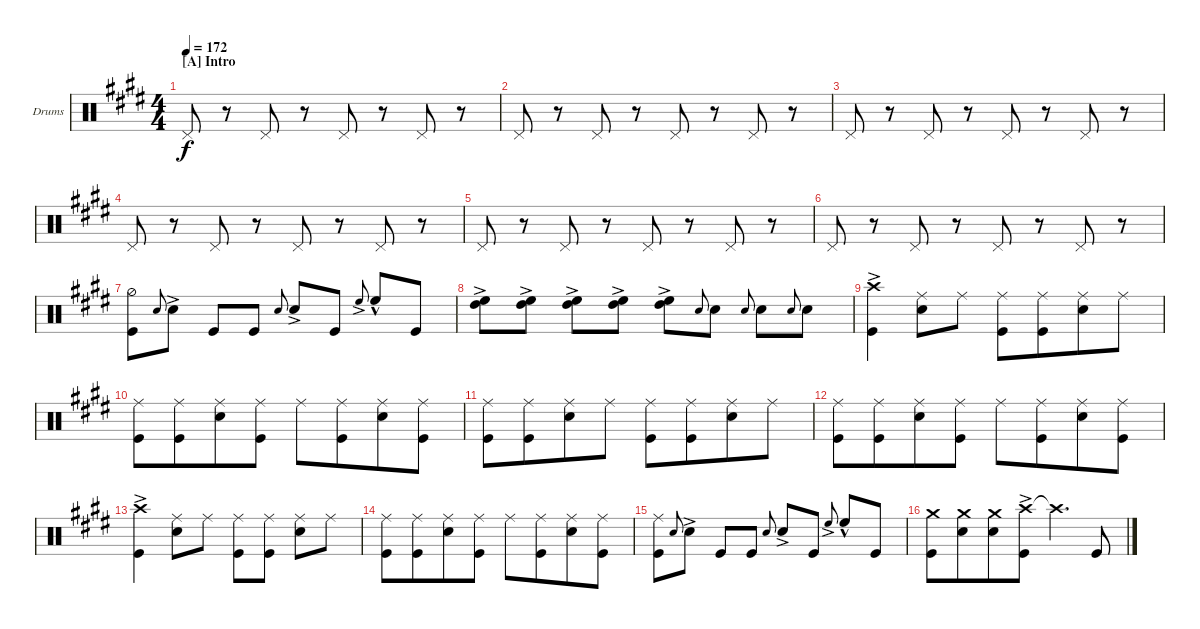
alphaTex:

\bracketExtendMode groupsimilarinstruments
\firstSystemTrackNameOrientation horizontal
\otherSystemsTrackNameOrientation horizontal
\track ("Drums" "Drums") {instrument percussion}
\staff {score}
\articulation defaults
\ts (4 4)
\section ("A" "Intro")
\tempo 172
\clef neutral
\scale
0.526971
\ks e "Pedal Hi-Hat (hit)".8{dy f}
r.8 "Pedal Hi-Hat (hit)".8 r.8 "Pedal Hi-Hat (hit)".8 r.8 "Pedal Hi-Hat (hit)".8 r.8 |
\scale
0.236515 "Pedal Hi-Hat (hit)".8 r.8 "Pedal Hi-Hat (hit)".8 r.8 "Pedal Hi-Hat (hit)".8 r.8 "Pedal Hi-Hat (hit)".8 r.8 |
\scale
0.236515 "Pedal Hi-Hat (hit)".8 r.8 "Pedal Hi-Hat (hit)".8 r.8 "Pedal Hi-Hat (hit)".8 r.8 "Pedal Hi-Hat (hit)".8 r.8 |
\scale
0.311475 "Pedal Hi-Hat (hit)".8 r.8 "Pedal Hi-Hat (hit)".8 r.8 "Pedal Hi-Hat (hit)".8 r.8 "Pedal Hi-Hat (hit)".8 r.8 |
\scale
0.377049 "Pedal Hi-Hat (hit)".8 r.8 "Pedal Hi-Hat (hit)".8 r.8 "Pedal Hi-Hat (hit)".8 r.8 "Pedal Hi-Hat (hit)".8 r.8 |
\scale
0.311475 "Pedal Hi-Hat (hit)".8 r.8 "Pedal Hi-Hat (hit)".8 r.8 "Pedal Hi-Hat (hit)".8 r.8 "Pedal Hi-Hat (hit)".8 r.8 |
\scale
0.333333 ("Hi-Hat (half)" "Kick (hit)").8 "Snare (hit) 2".8{gr onbeat} "Snare (hit) 2"{ac}.8 "Kick (hit)".8 "Kick (hit)".8 "Snare (hit) 2".8{gr onbeat} "Snare (hit) 2"{ac}.8 "Kick (hit)".8{beam split} "High Floor Tom (hit)"{ac}.8{gr onbeat beam split} "High Floor Tom (hit)"{hac}.8 "Kick (hit)".8 |
\scale
0.333333 ("High Floor Tom (hit)"{ac} "High Tom (hit)"{ac}).8 ("High Floor Tom (hit)"{ac} "High Tom (hit)"{ac}).8 ("High Floor Tom (hit)"{ac} "High Tom (hit)"{ac}).8 ("High Floor Tom (hit)"{ac} "High Tom (hit)"{ac}).8 ("High Floor Tom (hit)"{ac} "High Tom (hit)"{ac}).8 "Snare (hit) 2".8{gr onbeat} "Snare (hit) 2".8 "Snare (hit) 2".8{gr onbeat} "Snare (hit) 2".8 "Snare (hit) 2".8{gr onbeat} "Snare (hit) 2".8 |
("Kick (hit)" "Crash high (hit)"{ac}).4 ("Snare (hit) 2" "Ride (middle)").8 "Ride (middle)".8 ("Kick (hit)" "Ride (middle)").8 ("Kick (hit)" "Ride (middle)").8{beam merge} ("Snare (hit) 2" "Ride (middle)").8 "Ride (middle)".8 |
("Kick (hit)" "Ride (middle)").8 ("Kick (hit)" "Ride (middle)").8{beam merge} ("Snare (hit) 2" "Ride (middle)").8 ("Kick (hit)" "Ride (middle)").8 "Ride (middle)".8 ("Kick (hit)" "Ride (middle)").8{beam merge} ("Snare (hit) 2" "Ride (middle)").8 ("Kick (hit)" "Ride (middle)").8 |
("Kick (hit)" "Ride (middle)").8 ("Kick (hit)" "Ride (middle)").8{beam merge} ("Snare (hit) 2" "Ride (middle)").8 "Ride (middle)".8 ("Kick (hit)" "Ride (middle)").8 ("Kick (hit)" "Ride (middle)").8{beam merge} ("Snare (hit) 2" "Ride (middle)").8 "Ride (middle)".8 |
("Kick (hit)" "Ride (middle)").8 ("Kick (hit)" "Ride (middle)").8{beam merge} ("Snare (hit) 2" "Ride (middle)").8 ("Kick (hit)" "Ride (middle)").8 "Ride (middle)".8 ("Kick (hit)" "Ride (middle)").8{beam merge} ("Snare (hit) 2" "Ride (middle)").8 ("Kick (hit)" "Ride (middle)").8 |
("Kick (hit)" "Crash high (hit)"{ac}).4 ("Snare (hit) 2" "Ride (middle)").8 "Ride (middle)".8 ("Kick (hit)" "Ride (middle)").8 ("Kick (hit)" "Ride (middle)").8 ("Snare (hit) 2" "Ride (middle)").8 "Ride (middle)".8 |
("Kick (hit)" "Ride (middle)").8 ("Kick (hit)" "Ride (middle)").8{beam merge} ("Snare (hit) 2" "Ride (middle)").8 ("Kick (hit)" "Ride (middle)").8 "Ride (middle)".8 ("Kick (hit)" "Ride (middle)").8{beam merge} ("Snare (hit) 2" "Ride (middle)").8 ("Kick (hit)" "Ride (middle)").8 |
("Kick (hit)" "Ride (middle)").8 "Snare (hit) 2".8{gr onbeat} "Snare (hit) 2"{ac}.8 "Kick (hit)".8 "Kick (hit)".8 "Snare (hit) 2".8{gr onbeat} "Snare (hit) 2"{ac}.8 "Kick (hit)".8 "High Floor Tom (hit)"{ac}.8{gr onbeat} "High Floor Tom (hit)"{hac}.8 "Kick (hit)".8 |
\scale
0.333333 ("Kick (hit)" "Crash medium (hit)").8 ("Snare (hit) 2" "Crash medium (hit)").8{beam merge} ("Snare (hit) 2" "Crash medium (hit)").8 ("Crash high (hit)"{ac} "Kick (hit)").8 "Crash high (hit)"{t}.4{d} "Kick (hit)".8
